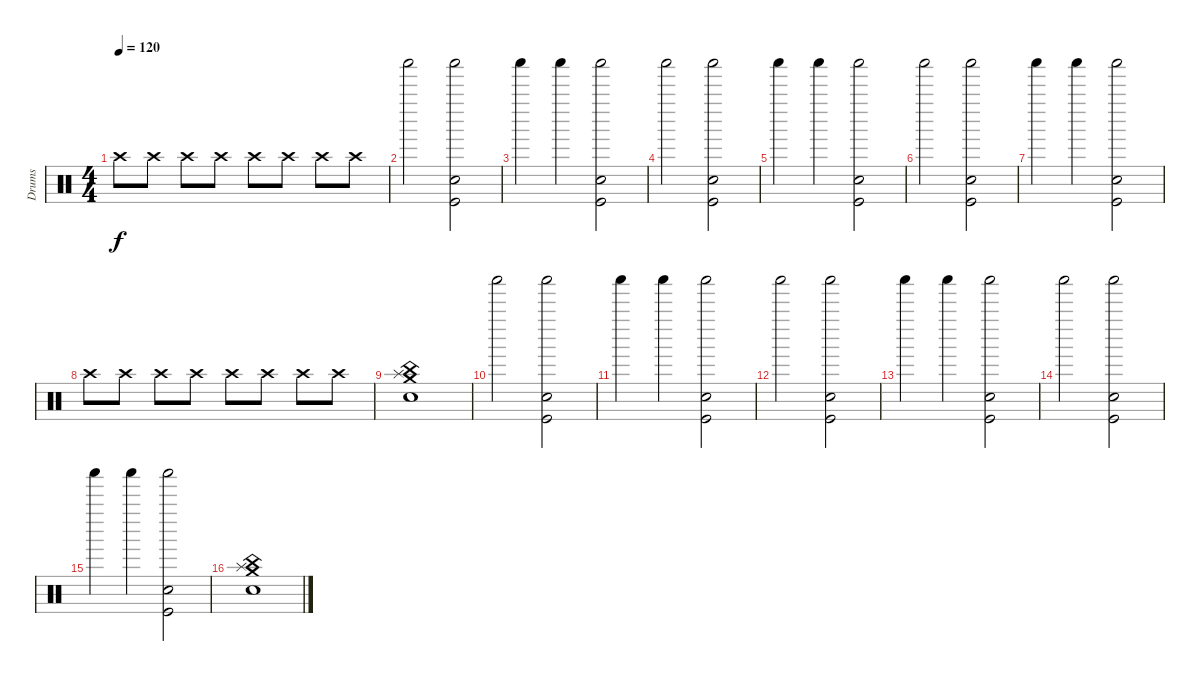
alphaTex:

\track ("Drums" "Drums") {instrument percussion}
\staff {score}
\articulation defaults
\ts (4 4)
\tempo 120
\clef neutral
\ks c "Crash high (hit)".8{dy f} "Crash high (hit)".8 "Crash high (hit)".8 "Crash high (hit)".8 "Crash high (hit)".8 "Crash high (hit)".8 "Crash high (hit)".8 "Crash high (hit)".8
|
"Shaker (hit)".2 ("Shaker (hit)" "Snare (hit) 2" "Kick (hit)").2 |
"Shaker (hit)".4 "Shaker (hit)".4 ("Shaker (hit)" "Snare (hit) 2" "Kick (hit)").2 |
"Shaker (hit)".2 ("Shaker (hit)" "Snare (hit) 2" "Kick (hit)").2 |
"Shaker (hit)".4 "Shaker (hit)".4 ("Shaker (hit)" "Snare (hit) 2" "Kick (hit)").2 |
"Shaker (hit)".2 ("Shaker (hit)" "Snare (hit) 2" "Kick (hit)").2 |
"Shaker (hit)".4 "Shaker (hit)".4 ("Shaker (hit)" "Snare (hit) 2" "Kick (hit)").2 |
"Crash high (hit)".8 "Crash high (hit)".8 "Crash high (hit)".8 "Crash high (hit)".8 "Crash high (hit)".8 "Crash high (hit)".8 "Crash high (hit)".8 "Crash high (hit)".8 |
("Electric Snare (hit)" "China (hit)" "Splash (hit)" "Crash medium (hit)").1 |
"Shaker (hit)".2 ("Shaker (hit)" "Snare (hit) 2" "Kick (hit)").2 |
"Shaker (hit)".4 "Shaker (hit)".4 ("Shaker (hit)" "Snare (hit) 2" "Kick (hit)").2 |
"Shaker (hit)".2 ("Shaker (hit)" "Snare (hit) 2" "Kick (hit)").2 |
"Shaker (hit)".4 "Shaker (hit)".4 ("Shaker (hit)" "Snare (hit) 2" "Kick (hit)").2 |
"Shaker (hit)".2 ("Shaker (hit)" "Snare (hit) 2" "Kick (hit)").2 |
"Shaker (hit)".4 "Shaker (hit)".4 ("Shaker (hit)" "Snare (hit) 2" "Kick (hit)").2 |
("Electric Snare (hit)" "China (hit)" "Splash (hit)" "Crash medium (hit)").1
